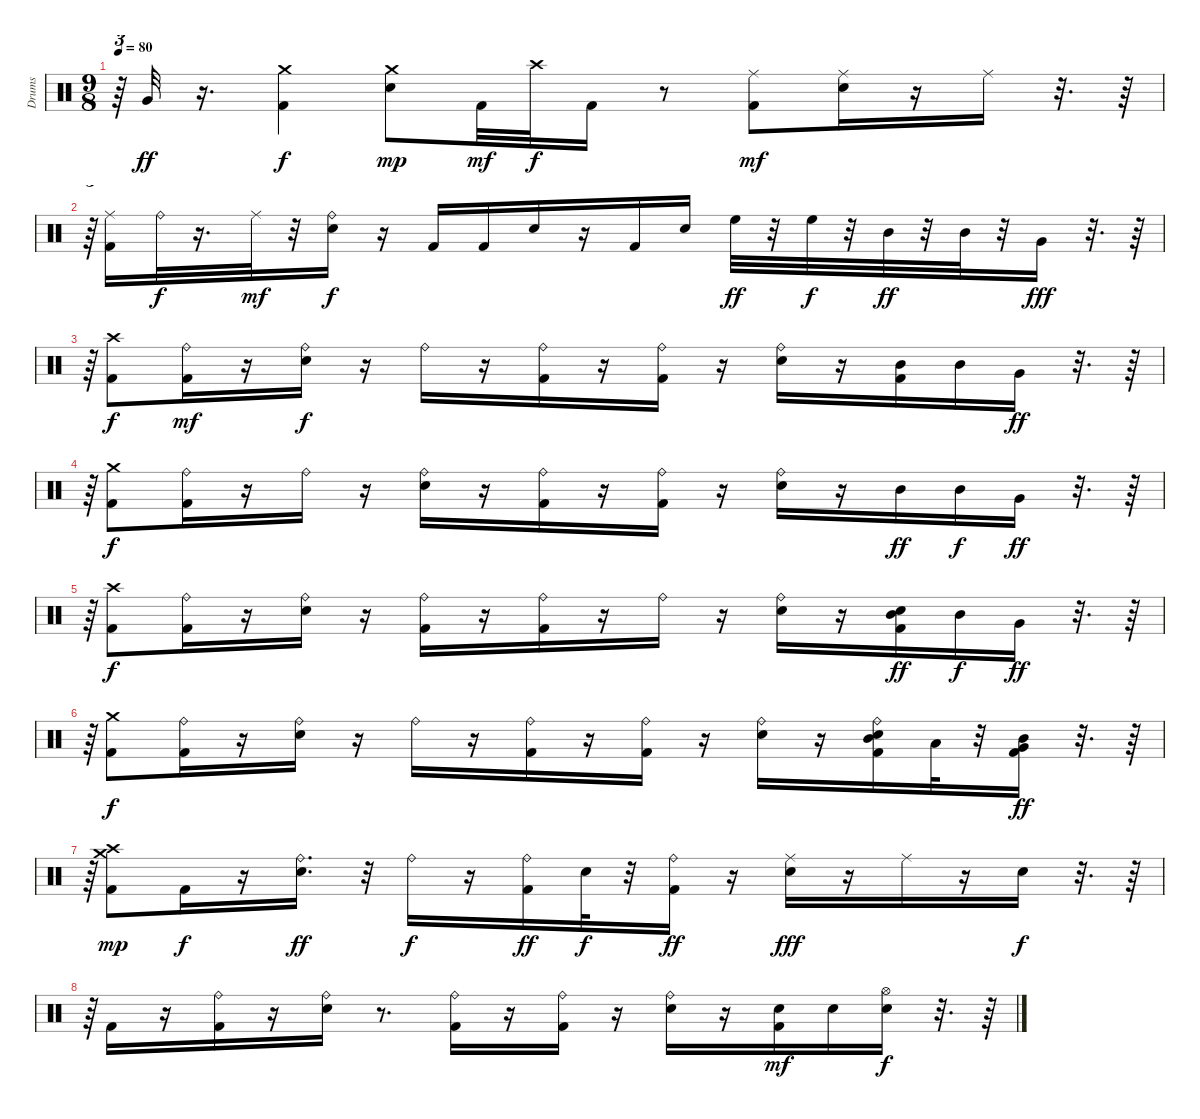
\track ("Drums" "Drums") {instrument percussion}
\staff {score}
\articulation defaults
\ts (9 8)
\tempo 80
\clef neutral
\ks c
r.64{tu (3 2) dy f} "Very Low Tom (hit)".32{dy ff} r.16{d} ("Kick (hit) 2" "Crash medium (hit)").4{dy f} ("Electric Snare (hit)" "Crash medium (hit)").8{dy mp} "Kick (hit) 2".32{dy mf} "Crash high (hit)".32{dy f} "Kick (hit) 2".16 r.8 ("Kick (hit) 2" "Ride (middle)").8{dy mf} ("Electric Snare (hit)" "Ride (middle)").16 r.16 "Ride (middle)".16 r.32{d} r.64 |
r.64{tu (3 2)} ("Kick (hit) 2" "Ride (middle)").16 "Ride (bell)".32{dy f} r.16{d} "Ride (middle)".32{dy mf} r.32 ("Electric Snare (hit)" "Ride (bell)").16{dy f} r.16 "Kick (hit) 2".16 "Kick (hit) 2".16 "Electric Snare (hit)".16 r.16 "Kick (hit) 2".16 "Electric Snare (hit)".16 "High Floor Tom (hit)".32{dy ff} r.32 "High Floor Tom (hit)".32{dy f} r.32 "Mid Tom (hit)".32{dy ff} r.32 "Mid Tom (hit)".32 r.32 "Very Low Tom (hit)".16{dy fff} r.32{d} r.64 |
r.64{tu (3 2)} ("Kick (hit) 2" "Crash high (hit)").8{dy f} ("Kick (hit) 2" "Ride (bell)").16{dy mf} r.16 ("Ride (bell)" "Electric Snare (hit)").16{dy f} r.16 "Ride (bell)".16 r.16 ("Kick (hit) 2" "Ride (bell)").16 r.16 ("Kick (hit) 2" "Ride (bell)").16 r.16 ("Ride (bell)" "Electric Snare (hit)").16 r.16 ("Kick (hit) 2" "Mid Tom (hit)").16 "Mid Tom (hit)".16 "Very Low Tom (hit)".16{dy ff} r.32{d} r.64 |
r.64{tu (3 2)} ("Kick (hit) 2" "Crash medium (hit)").8{dy f} ("Kick (hit) 2" "Ride (bell)").16 r.16 "Ride (bell)".16 r.16 ("Ride (bell)" "Electric Snare (hit)").16 r.16 ("Kick (hit) 2" "Ride (bell)").16 r.16 ("Kick (hit) 2" "Ride (bell)").16 r.16 ("Ride (bell)" "Electric Snare (hit)").16 r.16 "Mid Tom (hit)".16{dy ff} "Mid Tom (hit)".16{dy f} "Very Low Tom (hit)".16{dy ff} r.32{d} r.64 |
r.64{tu (3 2)} ("Kick (hit) 2" "Crash high (hit)").8{dy f} ("Kick (hit) 2" "Ride (bell)").16 r.16 ("Ride (bell)" "Electric Snare (hit)").16 r.16 ("Kick (hit) 2" "Ride (bell)").16 r.16 ("Kick (hit) 2" "Ride (bell)").16 r.16 "Ride (bell)".16 r.16 ("Ride (bell)" "Electric Snare (hit)").16 r.16 ("Kick (hit) 2" "Electric Snare (hit)" "Mid Tom (hit)").16{dy ff} "Mid Tom (hit)".16{dy f} "Very Low Tom (hit)".16{dy ff} r.32{d} r.64 |
r.64{tu (3 2)} ("Kick (hit) 2" "Crash medium (hit)").8{dy f} ("Kick (hit) 2" "Ride (bell)").16 r.16 ("Ride (bell)" "Electric Snare (hit)").16 r.16 "Ride (bell)".16 r.16 ("Kick (hit) 2" "Ride (bell)").16 r.16 ("Kick (hit) 2" "Ride (bell)").16 r.16 ("Ride (bell)" "Electric Snare (hit)").16 r.16 ("Kick (hit) 2" "Ride (bell)" "Electric Snare (hit)" "Mid Tom (hit)").16 "Low Tom (hit)".32 r.32 ("Kick (hit) 2" "Mid Tom (hit)" "Very Low Tom (hit)").16{dy ff} r.32{d} r.64 |
r.64{tu (3 2)} ("Kick (hit) 2" "Crash medium (hit)" "Crash high (hit)").8{dy mp} "Kick (hit) 2".16{dy f} r.16 ("Electric Snare (hit)" "Ride (bell)").16{d dy ff} r.32 "Ride (bell)".16{dy f} r.16 ("Kick (hit) 2" "Ride (bell)").16{dy ff} "Electric Snare (hit)".32{dy f} r.32 ("Kick (hit) 2" "Ride (bell)").16{dy ff} r.16 ("Electric Snare (hit)" "Ride (middle)").16{dy fff} r.16 "Ride (middle)".16 r.16 "Electric Snare (hit)".16{dy f} r.32{d} r.64 |
r.64{tu (3 2)} "Kick (hit) 2".16 r.16 ("Kick (hit) 2" "Ride (bell)").16 r.16 ("Ride (bell)" "Electric Snare (hit)").16 r.8{d} ("Kick (hit) 2" "Ride (bell)").16 r.16 ("Kick (hit) 2" "Ride (bell)").16 r.16 ("Ride (bell)" "Electric Snare (hit)").16 r.16 ("Kick (hit) 2" "Electric Snare (hit)").16{dy mf} "Electric Snare (hit)".16 ("Electric Snare (hit)" "Hi-Hat (open)").16{dy f} r.32{d} r.64
